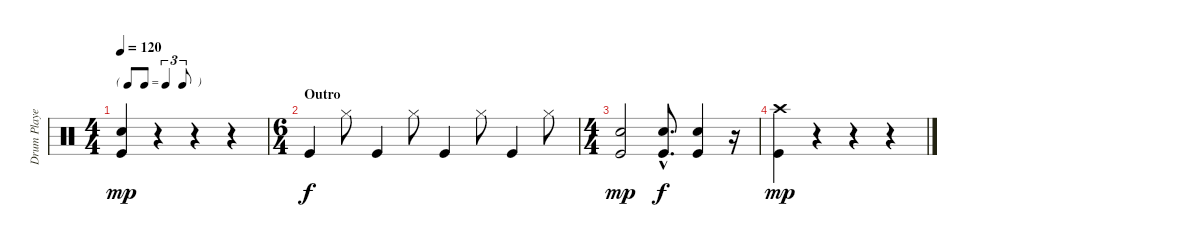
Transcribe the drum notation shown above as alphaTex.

\track ("Drum Player" "Drum Playe") {instrument percussion}
\staff {score}
\articulation defaults
\ts (4 4)
\tf triplet8th
\tempo 120
\clef neutral
\ks c
("Hand Clap (hit)" "Kick (hit)").4{dy mp} r.4 r.4 r.4 |
\ts (6 4)
\section ("" "Outro")
"Kick (hit)".4{dy f} "Hi-Hat (closed)".8 "Kick (hit)".4 "Hi-Hat (closed)".8 "Kick (hit)".4 "Hi-Hat (closed)".8 "Kick (hit)".4 "Hi-Hat (closed)".8 |
\ts (4 4)
("Hand Clap (hit)" "Kick (hit)").2{dy mp} ("Hand Clap (hit)"{hac} "Kick (hit)"{hac}).8{d dy f} ("Hand Clap (hit)" "Kick (hit)").4 r.16 |
("Crash high (hit)" "Kick (hit)").4{dy mp} r.4 r.4 r.4
